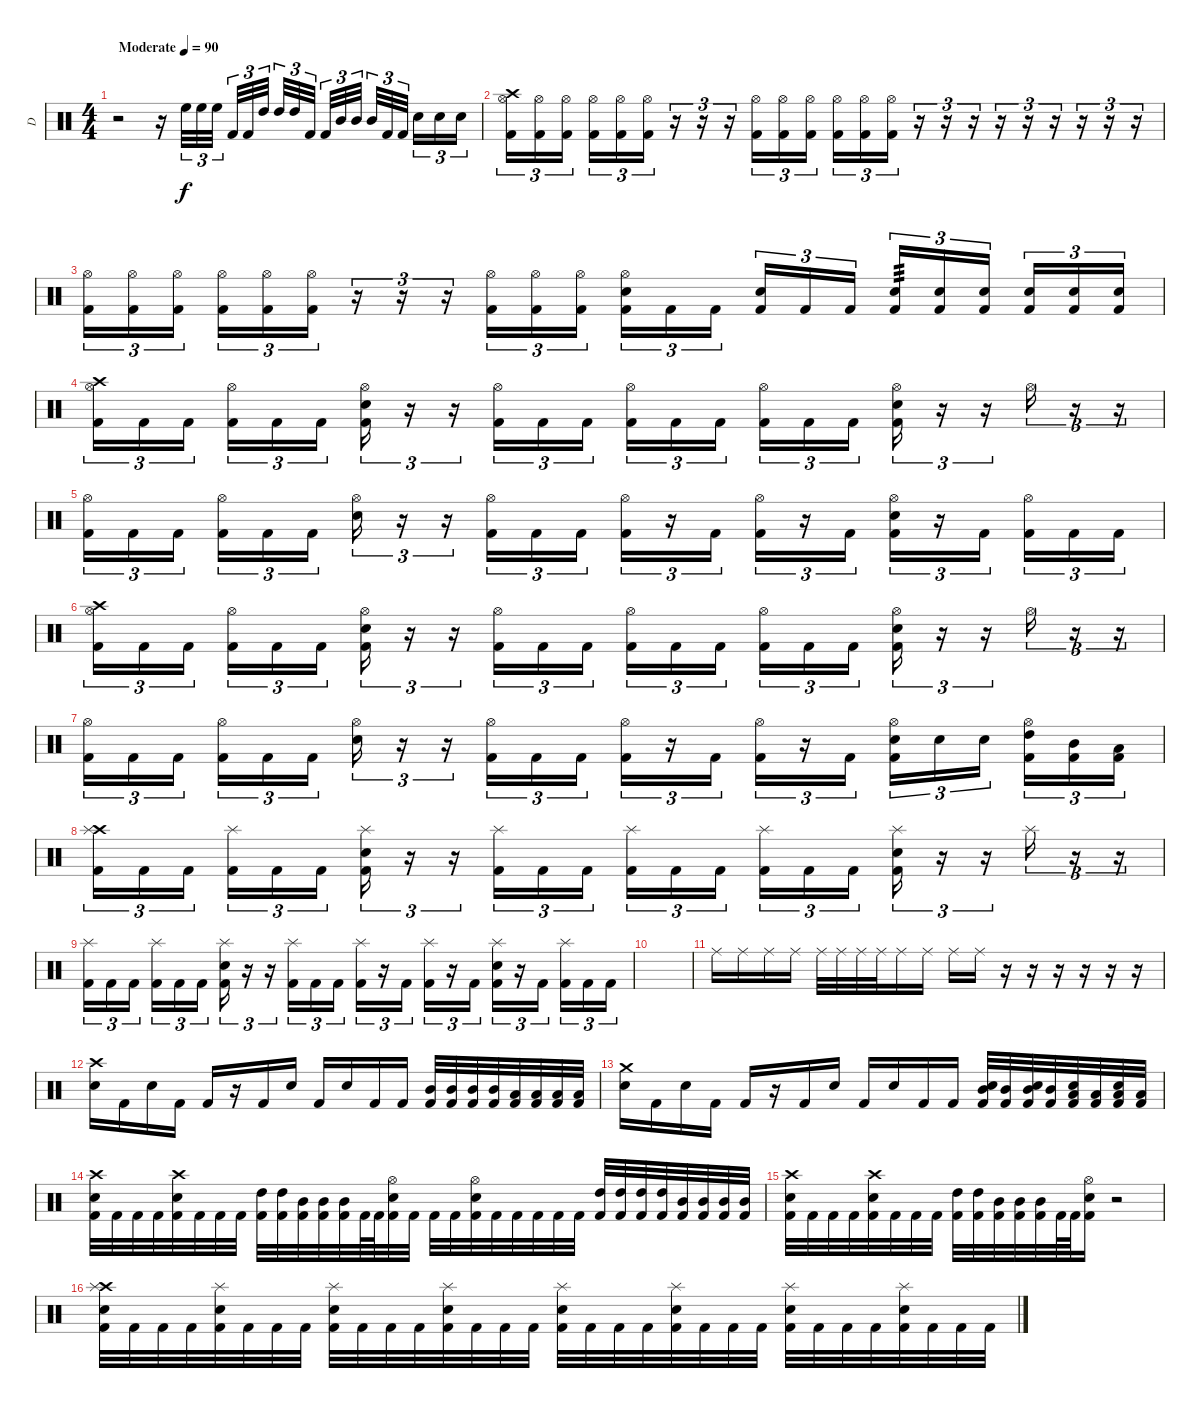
\track ("D" "D") {instrument percussion}
\staff {score}
\articulation defaults
\ts (4 4)
\tempo (90 "Moderate")
\clef neutral
\ks c
r.2{dy f} r.16 "High Floor Tom (hit)".32{tu (3 2)} "High Floor Tom (hit)".32{tu (3 2)} "High Floor Tom (hit)".32{tu (3 2) beam splitsecondary} "Kick (hit) 2".32{tu (3 2)} "Kick (hit) 2".32{tu (3 2)} "High Tom (hit)".32{tu (3 2) beam splitsecondary} "High Tom (hit)".32{tu (3 2)} "High Tom (hit)".32{tu (3 2)} "Kick (hit) 2".32{tu (3 2)} "Kick (hit) 2".32{tu (3 2)} "Mid Tom (hit)".32{tu (3 2)} "Mid Tom (hit)".32{tu (3 2) beam splitsecondary} "Mid Tom (hit)".32{tu (3 2)} "Kick (hit) 2".32{tu (3 2)} "Kick (hit) 2".32{tu (3 2) beam splitsecondary} "Electric Snare (hit)".16{tu (3 2)} "Electric Snare (hit)".16{tu (3 2)} "Electric Snare (hit)".16{tu (3 2)} |
("Crash high (hit)" "Kick (hit) 2" "Hi-Hat (open)").16{tu (3 2)} ("Kick (hit) 2" "Hi-Hat (open)").16{tu (3 2)} ("Kick (hit) 2" "Hi-Hat (open)").16{tu (3 2) beam splitsecondary} ("Kick (hit) 2" "Hi-Hat (open)").16{tu (3 2)} ("Kick (hit) 2" "Hi-Hat (open)").16{tu (3 2)} ("Kick (hit) 2" "Hi-Hat (open)").16{tu (3 2)} r.16{tu (3 2)} r.16{tu (3 2)} r.16{tu (3 2)} ("Kick (hit) 2" "Hi-Hat (open)").16{tu (3 2)} ("Kick (hit) 2" "Hi-Hat (open)").16{tu (3 2)} ("Kick (hit) 2" "Hi-Hat (open)").16{tu (3 2)} ("Kick (hit) 2" "Hi-Hat (open)").16{tu (3 2)} ("Kick (hit) 2" "Hi-Hat (open)").16{tu (3 2)} ("Kick (hit) 2" "Hi-Hat (open)").16{tu (3 2)} r.16{tu (3 2)} r.16{tu (3 2)} r.16{tu (3 2)} r.16{tu (3 2)} r.16{tu (3 2)} r.16{tu (3 2)} r.16{tu (3 2)} r.16{tu (3 2)} r.16{tu (3 2)} |
("Kick (hit) 2" "Hi-Hat (open)").16{tu (3 2)} ("Kick (hit) 2" "Hi-Hat (open)").16{tu (3 2)} ("Kick (hit) 2" "Hi-Hat (open)").16{tu (3 2) beam splitsecondary} ("Kick (hit) 2" "Hi-Hat (open)").16{tu (3 2)} ("Kick (hit) 2" "Hi-Hat (open)").16{tu (3 2)} ("Kick (hit) 2" "Hi-Hat (open)").16{tu (3 2)} r.16{tu (3 2)} r.16{tu (3 2)} r.16{tu (3 2)} ("Kick (hit) 2" "Hi-Hat (open)").16{tu (3 2)} ("Kick (hit) 2" "Hi-Hat (open)").16{tu (3 2)} ("Kick (hit) 2" "Hi-Hat (open)").16{tu (3 2)} ("Electric Snare (hit)" "Kick (hit) 2" "Hi-Hat (open)").16{tu (3 2)} "Kick (hit) 2".16{tu (3 2)} "Kick (hit) 2".16{tu (3 2) beam splitsecondary} ("Electric Snare (hit)" "Kick (hit) 2").16{tu (3 2)} "Kick (hit) 2".16{tu (3 2)} "Kick (hit) 2".16{tu (3 2)} ("Electric Snare (hit)" "Kick (hit) 2").16{tu (3 2) tp 3} ("Electric Snare (hit)" "Kick (hit) 2").16{tu (3 2)} ("Electric Snare (hit)" "Kick (hit) 2").16{tu (3 2) beam splitsecondary} ("Electric Snare (hit)" "Kick (hit) 2").16{tu (3 2)} ("Electric Snare (hit)" "Kick (hit) 2").16{tu (3 2)} ("Electric Snare (hit)" "Kick (hit) 2").16{tu (3 2)} |
("Crash high (hit)" "Kick (hit) 2" "Hi-Hat (open)").16{tu (3 2)} "Kick (hit) 2".16{tu (3 2)} "Kick (hit) 2".16{tu (3 2) beam splitsecondary} ("Kick (hit) 2" "Hi-Hat (open)").16{tu (3 2)} "Kick (hit) 2".16{tu (3 2)} "Kick (hit) 2".16{tu (3 2)} ("Electric Snare (hit)" "Kick (hit) 2" "Hi-Hat (open)").16{tu (3 2)} r.16{tu (3 2)} r.16{tu (3 2)} ("Kick (hit) 2" "Hi-Hat (open)").16{tu (3 2)} "Kick (hit) 2".16{tu (3 2)} "Kick (hit) 2".16{tu (3 2)} ("Kick (hit) 2" "Hi-Hat (open)").16{tu (3 2)} "Kick (hit) 2".16{tu (3 2)} "Kick (hit) 2".16{tu (3 2) beam splitsecondary} ("Kick (hit) 2" "Hi-Hat (open)").16{tu (3 2)} "Kick (hit) 2".16{tu (3 2)} "Kick (hit) 2".16{tu (3 2)} ("Electric Snare (hit)" "Kick (hit) 2" "Hi-Hat (open)").16{tu (3 2)} r.16{tu (3 2)} r.16{tu (3 2)} "Hi-Hat (open)".16{tu (3 2)} r.16{tu (3 2)} r.16{tu (3 2)} |
("Kick (hit) 2" "Hi-Hat (open)").16{tu (3 2)} "Kick (hit) 2".16{tu (3 2)} "Kick (hit) 2".16{tu (3 2) beam splitsecondary} ("Kick (hit) 2" "Hi-Hat (open)").16{tu (3 2)} "Kick (hit) 2".16{tu (3 2)} "Kick (hit) 2".16{tu (3 2)} ("Electric Snare (hit)" "Hi-Hat (open)").16{tu (3 2)} r.16{tu (3 2)} r.16{tu (3 2)} ("Kick (hit) 2" "Hi-Hat (open)").16{tu (3 2)} "Kick (hit) 2".16{tu (3 2)} "Kick (hit) 2".16{tu (3 2)} ("Kick (hit) 2" "Hi-Hat (open)").16{tu (3 2)} r.16{tu (3 2)} "Kick (hit) 2".16{tu (3 2)} ("Kick (hit) 2" "Hi-Hat (open)").16{tu (3 2)} r.16{tu (3 2)} "Kick (hit) 2".16{tu (3 2)} ("Electric Snare (hit)" "Kick (hit) 2" "Hi-Hat (open)").16{tu (3 2)} r.16{tu (3 2)} "Kick (hit) 2".16{tu (3 2) beam splitsecondary} ("Kick (hit) 2" "Hi-Hat (open)").16{tu (3 2)} "Kick (hit) 2".16{tu (3 2)} "Kick (hit) 2".16{tu (3 2)} |
("Crash high (hit)" "Kick (hit) 2" "Hi-Hat (open)").16{tu (3 2)} "Kick (hit) 2".16{tu (3 2)} "Kick (hit) 2".16{tu (3 2) beam splitsecondary} ("Kick (hit) 2" "Hi-Hat (open)").16{tu (3 2)} "Kick (hit) 2".16{tu (3 2)} "Kick (hit) 2".16{tu (3 2)} ("Electric Snare (hit)" "Kick (hit) 2" "Hi-Hat (open)").16{tu (3 2)} r.16{tu (3 2)} r.16{tu (3 2)} ("Kick (hit) 2" "Hi-Hat (open)").16{tu (3 2)} "Kick (hit) 2".16{tu (3 2)} "Kick (hit) 2".16{tu (3 2)} ("Kick (hit) 2" "Hi-Hat (open)").16{tu (3 2)} "Kick (hit) 2".16{tu (3 2)} "Kick (hit) 2".16{tu (3 2) beam splitsecondary} ("Kick (hit) 2" "Hi-Hat (open)").16{tu (3 2)} "Kick (hit) 2".16{tu (3 2)} "Kick (hit) 2".16{tu (3 2)} ("Electric Snare (hit)" "Kick (hit) 2" "Hi-Hat (open)").16{tu (3 2)} r.16{tu (3 2)} r.16{tu (3 2)} "Hi-Hat (open)".16{tu (3 2)} r.16{tu (3 2)} r.16{tu (3 2)} |
("Kick (hit) 2" "Hi-Hat (open)").16{tu (3 2)} "Kick (hit) 2".16{tu (3 2)} "Kick (hit) 2".16{tu (3 2) beam splitsecondary} ("Kick (hit) 2" "Hi-Hat (open)").16{tu (3 2)} "Kick (hit) 2".16{tu (3 2)} "Kick (hit) 2".16{tu (3 2)} ("Electric Snare (hit)" "Hi-Hat (open)").16{tu (3 2)} r.16{tu (3 2)} r.16{tu (3 2)} ("Kick (hit) 2" "Hi-Hat (open)").16{tu (3 2)} "Kick (hit) 2".16{tu (3 2)} "Kick (hit) 2".16{tu (3 2)} ("Kick (hit) 2" "Hi-Hat (open)").16{tu (3 2)} r.16{tu (3 2)} "Kick (hit) 2".16{tu (3 2)} ("Kick (hit) 2" "Hi-Hat (open)").16{tu (3 2)} r.16{tu (3 2)} "Kick (hit) 2".16{tu (3 2)} ("Electric Snare (hit)" "Kick (hit) 2" "Hi-Hat (open)").16{tu (3 2)} "Electric Snare (hit)".16{tu (3 2)} "Electric Snare (hit)".16{tu (3 2) beam splitsecondary} ("High Tom (hit)" "Kick (hit) 2" "Hi-Hat (open)").16{tu (3 2)} ("Mid Tom (hit)" "Kick (hit) 2").16{tu (3 2)} ("Low Tom (hit)" "Kick (hit) 2").16{tu (3 2)} |
("Crash high (hit)" "Kick (hit) 2" "Splash (hit)").16{tu (3 2)} "Kick (hit) 2".16{tu (3 2)} "Kick (hit) 2".16{tu (3 2) beam splitsecondary} ("Kick (hit) 2" "Splash (hit)").16{tu (3 2)} "Kick (hit) 2".16{tu (3 2)} "Kick (hit) 2".16{tu (3 2)} ("Electric Snare (hit)" "Kick (hit) 2" "Splash (hit)").16{tu (3 2)} r.16{tu (3 2)} r.16{tu (3 2)} ("Kick (hit) 2" "Splash (hit)").16{tu (3 2)} "Kick (hit) 2".16{tu (3 2)} "Kick (hit) 2".16{tu (3 2)} ("Kick (hit) 2" "Splash (hit)").16{tu (3 2)} "Kick (hit) 2".16{tu (3 2)} "Kick (hit) 2".16{tu (3 2) beam splitsecondary} ("Kick (hit) 2" "Splash (hit)").16{tu (3 2)} "Kick (hit) 2".16{tu (3 2)} "Kick (hit) 2".16{tu (3 2)} ("Electric Snare (hit)" "Kick (hit) 2" "Splash (hit)").16{tu (3 2)} r.16{tu (3 2)} r.16{tu (3 2)} "Splash (hit)".16{tu (3 2)} r.16{tu (3 2)} r.16{tu (3 2)} |
("Kick (hit) 2" "Splash (hit)").16{tu (3 2)} "Kick (hit) 2".16{tu (3 2)} "Kick (hit) 2".16{tu (3 2) beam splitsecondary} ("Kick (hit) 2" "Splash (hit)").16{tu (3 2)} "Kick (hit) 2".16{tu (3 2)} "Kick (hit) 2".16{tu (3 2)} ("Electric Snare (hit)" "Kick (hit) 2" "Splash (hit)").16{tu (3 2)} r.16{tu (3 2)} r.16{tu (3 2)} ("Kick (hit) 2" "Splash (hit)").16{tu (3 2)} "Kick (hit) 2".16{tu (3 2)} "Kick (hit) 2".16{tu (3 2)} ("Kick (hit) 2" "Splash (hit)").16{tu (3 2)} r.16{tu (3 2)} "Kick (hit) 2".16{tu (3 2)} ("Kick (hit) 2" "Splash (hit)").16{tu (3 2)} r.16{tu (3 2)} "Kick (hit) 2".16{tu (3 2)} ("Electric Snare (hit)" "Kick (hit) 2" "Splash (hit)").16{tu (3 2)} r.16{tu (3 2)} "Kick (hit) 2".16{tu (3 2) beam splitsecondary} ("Kick (hit) 2" "Splash (hit)").16{tu (3 2)} "Kick (hit) 2".16{tu (3 2)} "Kick (hit) 2".16{tu (3 2)} |
|
"Ride (middle)".16 "Ride (middle)".16 "Ride (middle)".16 "Ride (middle)".16 "Ride (middle)".32 "Ride (middle)".32 "Ride (middle)".32 "Ride (middle)".32 "Ride (middle)".16 "Ride (middle)".16 "Ride (middle)".16 "Ride (middle)".16 r.16 r.16 r.16 r.16 r.16 r.16 |
("Crash high (hit)" "Electric Snare (hit)").16 "Kick (hit) 2".16 "Electric Snare (hit)".16 "Kick (hit) 2".16 "Kick (hit) 2".16 r.16 "Kick (hit) 2".16 "Electric Snare (hit)".16 "Kick (hit) 2".16 "Electric Snare (hit)".16 "Kick (hit) 2".16 "Kick (hit) 2".16 ("Mid Tom (hit)" "Kick (hit) 2").32 ("Mid Tom (hit)" "Kick (hit) 2").32 ("Mid Tom (hit)" "Kick (hit) 2").32 ("Mid Tom (hit)" "Kick (hit) 2").32 ("Low Tom (hit)" "Kick (hit) 2").32 ("Low Tom (hit)" "Kick (hit) 2").32 ("Low Tom (hit)" "Kick (hit) 2").32 ("Low Tom (hit)" "Kick (hit) 2").32 |
("Crash medium (hit)" "Electric Snare (hit)").16 "Kick (hit) 2".16 "Electric Snare (hit)".16 "Kick (hit) 2".16 "Kick (hit) 2".16 r.16 "Kick (hit) 2".16 "Electric Snare (hit)".16 "Kick (hit) 2".16 "Electric Snare (hit)".16 "Kick (hit) 2".16 "Kick (hit) 2".16 ("Electric Snare (hit)" "Mid Tom (hit)" "Kick (hit) 2").32 ("Mid Tom (hit)" "Kick (hit) 2").32 ("Electric Snare (hit)" "Mid Tom (hit)" "Kick (hit) 2").32 ("Mid Tom (hit)" "Kick (hit) 2").32 ("Electric Snare (hit)" "Low Tom (hit)" "Kick (hit) 2").32 ("Low Tom (hit)" "Kick (hit) 2").32 ("Electric Snare (hit)" "Low Tom (hit)" "Kick (hit) 2").32 ("Low Tom (hit)" "Kick (hit) 2").32 |
("Crash high (hit)" "Electric Snare (hit)" "Kick (hit) 2").32 "Kick (hit) 2".32 "Kick (hit) 2".32 "Kick (hit) 2".32 ("Crash high (hit)" "Electric Snare (hit)" "Kick (hit) 2").32 "Kick (hit) 2".32 "Kick (hit) 2".32 "Kick (hit) 2".32 ("High Tom (hit)" "Kick (hit) 2").32 ("High Tom (hit)" "Kick (hit) 2").32 ("Mid Tom (hit)" "Kick (hit) 2").32 ("Mid Tom (hit)" "Kick (hit) 2").32 ("Mid Tom (hit)" "Kick (hit) 2").32 "Kick (hit) 2".64 "Kick (hit) 2".64 ("Hi-Hat (open)" "Electric Snare (hit)" "Kick (hit) 2").32 "Kick (hit) 2".32 "Kick (hit) 2".32 "Kick (hit) 2".32 ("Hi-Hat (open)" "Electric Snare (hit)" "Kick (hit) 2").32 "Kick (hit) 2".32 "Kick (hit) 2".32 "Kick (hit) 2".32 "Kick (hit) 2".32 "Kick (hit) 2".32 ("High Tom (hit)" "Kick (hit) 2").32 ("High Tom (hit)" "Kick (hit) 2").32 ("High Tom (hit)" "Kick (hit) 2").32 ("High Tom (hit)" "Kick (hit) 2").32 ("Mid Tom (hit)" "Kick (hit) 2").32 ("Mid Tom (hit)" "Kick (hit) 2").32 ("Mid Tom (hit)" "Kick (hit) 2").32 ("Mid Tom (hit)" "Kick (hit) 2").32 |
("Crash high (hit)" "Electric Snare (hit)" "Kick (hit) 2").32 "Kick (hit) 2".32 "Kick (hit) 2".32 "Kick (hit) 2".32 ("Crash high (hit)" "Electric Snare (hit)" "Kick (hit) 2").32 "Kick (hit) 2".32 "Kick (hit) 2".32 "Kick (hit) 2".32 ("High Tom (hit)" "Kick (hit) 2").32 ("High Tom (hit)" "Kick (hit) 2").32 ("Mid Tom (hit)" "Kick (hit) 2").32 ("Mid Tom (hit)" "Kick (hit) 2").32 ("Mid Tom (hit)" "Kick (hit) 2").32 "Kick (hit) 2".64 "Kick (hit) 2".64 ("Hi-Hat (open)" "Electric Snare (hit)" "Kick (hit) 2").16 r.2 |
("Crash high (hit)" "Electric Snare (hit)" "Kick (hit) 2" "Splash (hit)").32 "Kick (hit) 2".32 "Kick (hit) 2".32 "Kick (hit) 2".32 ("Electric Snare (hit)" "Kick (hit) 2" "Splash (hit)").32 "Kick (hit) 2".32 "Kick (hit) 2".32 "Kick (hit) 2".32 ("Electric Snare (hit)" "Kick (hit) 2" "Splash (hit)").32 "Kick (hit) 2".32 "Kick (hit) 2".32 "Kick (hit) 2".32 ("Electric Snare (hit)" "Kick (hit) 2" "Splash (hit)").32 "Kick (hit) 2".32 "Kick (hit) 2".32 "Kick (hit) 2".32 ("Electric Snare (hit)" "Kick (hit) 2" "Splash (hit)").32 "Kick (hit) 2".32 "Kick (hit) 2".32 "Kick (hit) 2".32 ("Electric Snare (hit)" "Kick (hit) 2" "Splash (hit)").32 "Kick (hit) 2".32 "Kick (hit) 2".32 "Kick (hit) 2".32 ("Electric Snare (hit)" "Kick (hit) 2" "Splash (hit)").32 "Kick (hit) 2".32 "Kick (hit) 2".32 "Kick (hit) 2".32 ("Electric Snare (hit)" "Kick (hit) 2" "Splash (hit)").32 "Kick (hit) 2".32 "Kick (hit) 2".32 "Kick (hit) 2".32
